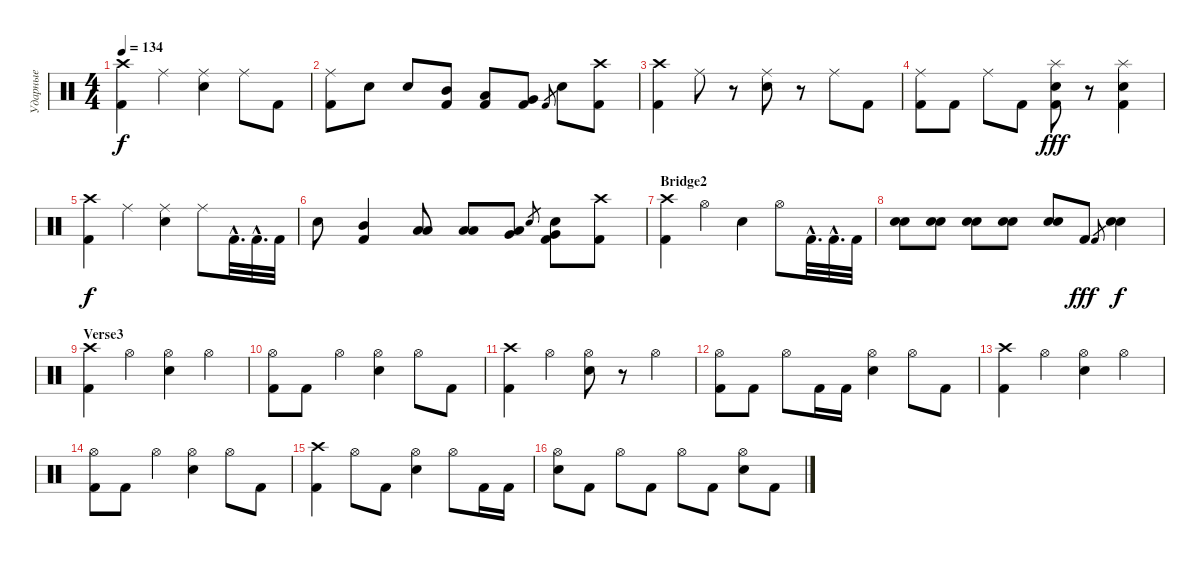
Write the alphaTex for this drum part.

\track ("Ударные" "Ударные") {instrument percussion}
\staff {score}
\articulation defaults
\ts (4 4)
\tempo 134
\clef neutral
\ks c
("Crash high (hit)" "Kick (hit) 2").4{dy f} "Ride (middle)".4 ("Ride (middle)" "Electric Snare (hit)").4 "Ride (middle)".8 "Kick (hit) 2".8 |
("Ride (middle)" "Kick (hit) 2").8 "Electric Snare (hit)".8 "Electric Snare (hit)".8 ("Mid Tom (hit)" "Kick (hit) 2").8 ("Low Tom (hit)" "Kick (hit) 2").8 ("Very Low Tom (hit)" "Kick (hit) 2").8 "Kick (hit) 2".8{gr} "Electric Snare (hit)".8 ("Crash high (hit)" "Kick (hit) 2").8 |
("Crash high (hit)" "Kick (hit) 2").4 "Ride (middle)".8 r.8 ("Ride (middle)" "Electric Snare (hit)").8 r.8 "Ride (middle)".8 "Kick (hit) 2".8 |
("Ride (middle)" "Kick (hit) 2").8 "Kick (hit) 2".8 "Ride (middle)".8 "Kick (hit) 2".8 ("Splash (hit)" "Electric Snare (hit)" "Kick (hit) 2").8{dy fff} r.8 ("Splash (hit)" "Electric Snare (hit)" "Kick (hit) 2").4 |
("Crash high (hit)" "Kick (hit) 2").4{dy f} "Ride (middle)".4 ("Ride (middle)" "Electric Snare (hit)").4 "Ride (middle)".8 "Kick (hit) 2"{hac}.32{d} "Kick (hit) 2"{hac}.32{d} "Kick (hit) 2".32 |
"Electric Snare (hit)".8 ("Mid Tom (hit)" "Kick (hit) 2").4 ("Low Tom (hit)" "Low Tom (hit)").8 ("Low Tom (hit)" "Low Tom (hit)").8 ("Low Tom (hit)" "Very Low Tom (hit)").8 "Electric Snare (hit)".8{gr} ("Electric Snare (hit)" "Very Low Tom (hit)" "Kick (hit) 2").8 ("Crash high (hit)" "Kick (hit) 2").8 |
\section ("" "Bridge2")
("Crash high (hit)" "Kick (hit) 2").4 "Hi-Hat (open)".4 "Electric Snare (hit)".4 "Hi-Hat (open)".8 "Kick (hit) 2"{hac}.32{d} "Kick (hit) 2"{hac}.32{d} "Kick (hit) 2".32 |
("Electric Snare (hit)" "Electric Snare (hit)").8 ("Electric Snare (hit)" "Electric Snare (hit)").8 ("Electric Snare (hit)" "Electric Snare (hit)").8 ("Electric Snare (hit)" "Electric Snare (hit)").8 ("Electric Snare (hit)" "Electric Snare (hit)").8 "Kick (hit) 2".8{dy fff} "Kick (hit) 2".8{gr} ("Electric Snare (hit)" "Electric Snare (hit)").4{dy f} |
\section ("" "Verse3")
("Crash high (hit)" "Kick (hit) 2").4 "Hi-Hat (open)".4 ("Hi-Hat (open)" "Electric Snare (hit)").4 "Hi-Hat (open)".4 |
("Hi-Hat (open)" "Kick (hit) 2").8 "Kick (hit) 2".8 "Hi-Hat (open)".4 ("Hi-Hat (open)" "Electric Snare (hit)").4 "Hi-Hat (open)".8 "Kick (hit) 2".8 |
("Crash high (hit)" "Kick (hit) 2").4 "Hi-Hat (open)".4 ("Hi-Hat (open)" "Electric Snare (hit)").8 r.8 "Hi-Hat (open)".4 |
("Hi-Hat (open)" "Kick (hit) 2").8 "Kick (hit) 2".8 "Hi-Hat (open)".8 "Kick (hit) 2".16 "Kick (hit) 2".16 ("Hi-Hat (open)" "Electric Snare (hit)").4 "Hi-Hat (open)".8 "Kick (hit) 2".8 |
("Crash high (hit)" "Kick (hit) 2").4 "Hi-Hat (open)".4 ("Hi-Hat (open)" "Electric Snare (hit)").4 "Hi-Hat (open)".4 |
("Hi-Hat (open)" "Kick (hit) 2").8 "Kick (hit) 2".8 "Hi-Hat (open)".4 ("Hi-Hat (open)" "Electric Snare (hit)").4 "Hi-Hat (open)".8 "Kick (hit) 2".8 |
("Crash high (hit)" "Kick (hit) 2").4 "Hi-Hat (open)".8 "Kick (hit) 2".8 ("Hi-Hat (open)" "Electric Snare (hit)").4 "Hi-Hat (open)".8 "Kick (hit) 2".16 "Kick (hit) 2".16 |
("Hi-Hat (open)" "Electric Snare (hit)").8 "Kick (hit) 2".8 "Hi-Hat (open)".8 "Kick (hit) 2".8 "Hi-Hat (open)".8 "Kick (hit) 2".8 ("Hi-Hat (open)" "Electric Snare (hit)").8 "Kick (hit) 2".8
